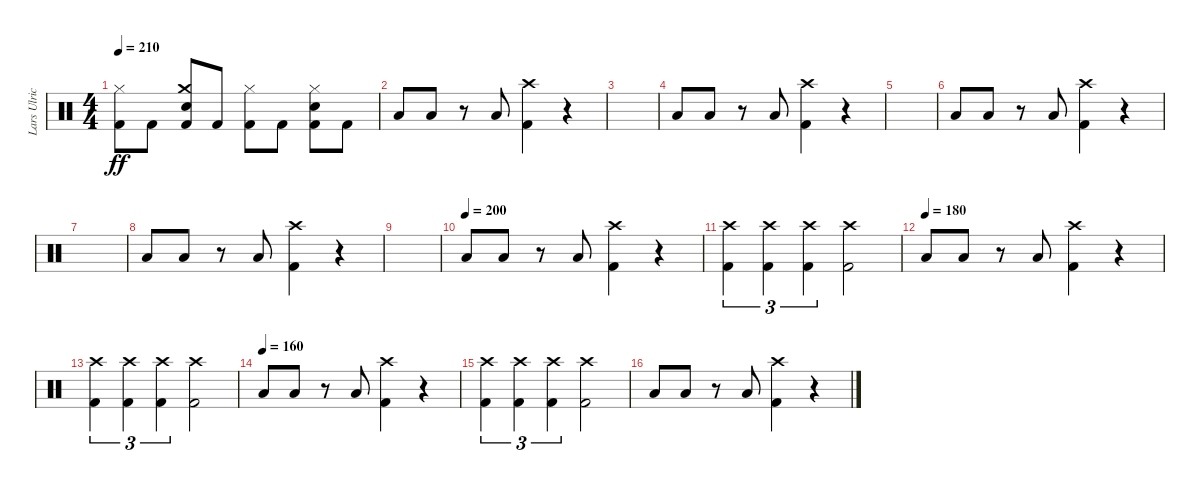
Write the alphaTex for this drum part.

\track ("Lars Ulrich" "Lars Ulric") {instrument percussion}
\staff {score}
\articulation defaults
\ts (4 4)
\tempo 210
\clef neutral
\ks c
("Hi-Hat (closed)" "Kick (hit) 2").8{dy ff} "Kick (hit) 2".8 ("Crash medium (hit)" "Snare (hit) 2" "Kick (hit) 2").8 "Kick (hit) 2".8 ("Hi-Hat (closed)" "Kick (hit) 2").8 "Kick (hit) 2".8 ("Hi-Hat (closed)" "Snare (hit) 2" "Kick (hit) 2").8 "Kick (hit) 2".8 |
"Low Tom (hit)".8 "Low Tom (hit)".8 r.8 "Low Tom (hit)".8 ("Crash high (hit)" "Kick (hit) 2").4 r.4 |
|
"Low Tom (hit)".8 "Low Tom (hit)".8 r.8 "Low Tom (hit)".8 ("Crash high (hit)" "Kick (hit) 2").4 r.4 |
|
"Low Tom (hit)".8 "Low Tom (hit)".8 r.8 "Low Tom (hit)".8 ("Crash high (hit)" "Kick (hit) 2").4 r.4 |
|
"Low Tom (hit)".8 "Low Tom (hit)".8 r.8 "Low Tom (hit)".8 ("Crash high (hit)" "Kick (hit) 2").4 r.4 |
|
\tempo (200)
"Low Tom (hit)".8 "Low Tom (hit)".8 r.8 "Low Tom (hit)".8 ("Crash high (hit)" "Kick (hit) 2").4 r.4 |
("Crash high (hit)" "Kick (hit) 2").4{tu (3 2)} ("Crash high (hit)" "Kick (hit) 2").4{tu (3 2)} ("Crash high (hit)" "Kick (hit) 2").4{tu (3 2)} ("Crash high (hit)" "Kick (hit) 2").2 |
\tempo (180)
"Low Tom (hit)".8 "Low Tom (hit)".8 r.8 "Low Tom (hit)".8 ("Crash high (hit)" "Kick (hit) 2").4 r.4 |
("Crash high (hit)" "Kick (hit) 2").4{tu (3 2)} ("Crash high (hit)" "Kick (hit) 2").4{tu (3 2)} ("Crash high (hit)" "Kick (hit) 2").4{tu (3 2)} ("Crash high (hit)" "Kick (hit) 2").2 |
\tempo (160)
"Low Tom (hit)".8 "Low Tom (hit)".8 r.8 "Low Tom (hit)".8 ("Crash high (hit)" "Kick (hit) 2").4 r.4 |
("Crash high (hit)" "Kick (hit) 2").4{tu (3 2)} ("Crash high (hit)" "Kick (hit) 2").4{tu (3 2)} ("Crash high (hit)" "Kick (hit) 2").4{tu (3 2)} ("Crash high (hit)" "Kick (hit) 2").2 |
"Low Tom (hit)".8 "Low Tom (hit)".8 r.8 "Low Tom (hit)".8 ("Crash high (hit)" "Kick (hit) 2").4 r.4
